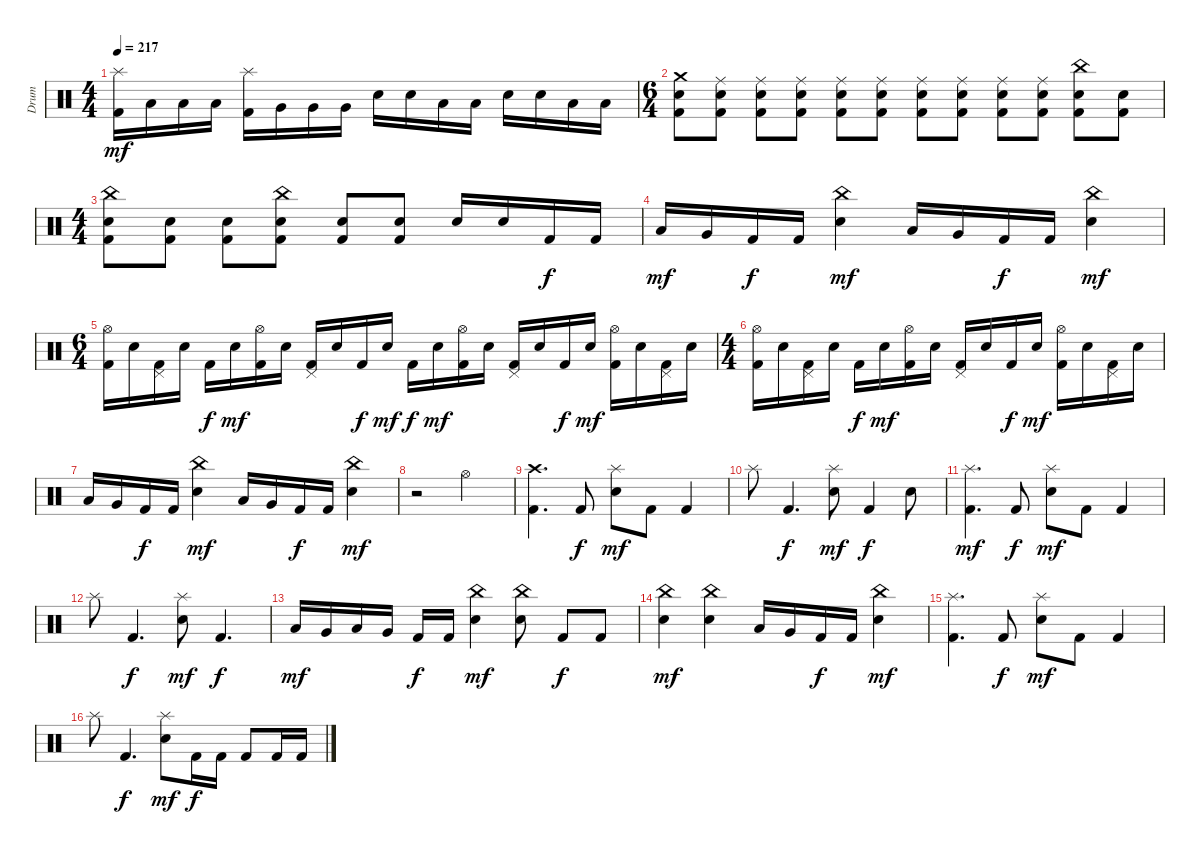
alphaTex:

\track ("Drum" "Drum") {instrument percussion}
\staff {score}
\articulation defaults
\ts (4 4)
\tempo 217
\clef neutral
\ks c
("Splash (hit)" "Kick (hit) 2").16{dy mf} "Low Tom (hit)".16 "Low Tom (hit)".16 "Low Tom (hit)".16 ("Splash (hit)" "Kick (hit) 2").16 "Very Low Tom (hit)".16 "Very Low Tom (hit)".16 "Very Low Tom (hit)".16 "Electric Snare (hit)".16 "Electric Snare (hit)".16 "Low Tom (hit)".16 "Low Tom (hit)".16 "Electric Snare (hit)".16 "Electric Snare (hit)".16 "Low Floor Tom (hit)".16 "Low Floor Tom (hit)".16 |
\ts (6 4)
("Crash medium (hit)" "Electric Snare (hit)" "Kick (hit) 2").8 ("Ride (middle)" "Electric Snare (hit)" "Kick (hit) 2").8 ("Ride (middle)" "Electric Snare (hit)" "Kick (hit) 2").8 ("Ride (middle)" "Electric Snare (hit)" "Kick (hit) 2").8 ("Ride (middle)" "Electric Snare (hit)" "Kick (hit) 2").8 ("Ride (middle)" "Electric Snare (hit)" "Kick (hit) 2").8 ("Ride (middle)" "Electric Snare (hit)" "Kick (hit) 2").8 ("Ride (middle)" "Electric Snare (hit)" "Kick (hit) 2").8 ("Ride (middle)" "Electric Snare (hit)" "Kick (hit) 2").8 ("Ride (middle)" "Electric Snare (hit)" "Kick (hit) 2").8 ("China (hit)" "Electric Snare (hit)" "Kick (hit) 2").8 ("Electric Snare (hit)" "Kick (hit) 2").8 |
\ts (4 4)
("China (hit)" "Electric Snare (hit)" "Kick (hit) 2").8 ("Electric Snare (hit)" "Kick (hit) 2").8 ("Electric Snare (hit)" "Kick (hit) 2").8 ("China (hit)" "Electric Snare (hit)" "Kick (hit) 2").8 ("Electric Snare (hit)" "Kick (hit) 2").8 ("Electric Snare (hit)" "Kick (hit) 2").8 "Electric Snare (hit)".16 "Electric Snare (hit)".16 "Kick (hit) 2".16{dy f} "Kick (hit) 2".16 |
"Low Tom (hit)".16{dy mf} "Very Low Tom (hit)".16 "Kick (hit) 2".16{dy f} "Kick (hit) 2".16 ("China (hit)" "Electric Snare (hit)").4{dy mf} "Low Tom (hit)".16 "Very Low Tom (hit)".16 "Kick (hit) 2".16{dy f} "Kick (hit) 2".16 ("China (hit)" "Electric Snare (hit)").4{dy mf} |
\ts (6 4)
("Hi-Hat (open)" "Kick (hit) 2").16 "Electric Snare (hit)".16 ("Pedal Hi-Hat (hit)" "Kick (hit) 2").16 "Electric Snare (hit)".16 "Kick (hit) 2".16{dy f} "Electric Snare (hit)".16{dy mf} ("Hi-Hat (open)" "Kick (hit) 2").16 "Electric Snare (hit)".16 ("Pedal Hi-Hat (hit)" "Kick (hit) 2").16 "Electric Snare (hit)".16 "Kick (hit) 2".16{dy f} "Electric Snare (hit)".16{dy mf} "Kick (hit) 2".16{dy f} "Electric Snare (hit)".16{dy mf} ("Hi-Hat (open)" "Kick (hit) 2").16 "Electric Snare (hit)".16 ("Pedal Hi-Hat (hit)" "Kick (hit) 2").16 "Electric Snare (hit)".16 "Kick (hit) 2".16{dy f} "Electric Snare (hit)".16{dy mf} ("Hi-Hat (open)" "Kick (hit) 2").16 "Electric Snare (hit)".16 ("Pedal Hi-Hat (hit)" "Kick (hit) 2").16 "Electric Snare (hit)".16 |
\ts (4 4)
("Hi-Hat (open)" "Kick (hit) 2").16 "Electric Snare (hit)".16 ("Pedal Hi-Hat (hit)" "Kick (hit) 2").16 "Electric Snare (hit)".16 "Kick (hit) 2".16{dy f} "Electric Snare (hit)".16{dy mf} ("Hi-Hat (open)" "Kick (hit) 2").16 "Electric Snare (hit)".16 ("Pedal Hi-Hat (hit)" "Kick (hit) 2").16 "Electric Snare (hit)".16 "Kick (hit) 2".16{dy f} "Electric Snare (hit)".16{dy mf} ("Hi-Hat (open)" "Kick (hit) 2").16 "Electric Snare (hit)".16 ("Pedal Hi-Hat (hit)" "Kick (hit) 2").16 "Electric Snare (hit)".16 |
"Low Tom (hit)".16 "Very Low Tom (hit)".16 "Kick (hit) 2".16{dy f} "Kick (hit) 2".16 ("China (hit)" "Electric Snare (hit)").4{dy mf} "Low Tom (hit)".16 "Very Low Tom (hit)".16 "Kick (hit) 2".16{dy f} "Kick (hit) 2".16 ("China (hit)" "Electric Snare (hit)").4{dy mf} |
r.2 "Hi-Hat (open)".2 |
("Crash high (hit)" "Kick (hit) 2").4{d} "Kick (hit) 2".8{dy f} ("Splash (hit)" "Electric Snare (hit)").8{dy mf} "Kick (hit) 2".8 "Kick (hit) 2".4 |
"Splash (hit)".8 "Kick (hit) 2".4{d dy f} ("Splash (hit)" "Electric Snare (hit)").8{dy mf} "Kick (hit) 2".4{dy f} "Electric Snare (hit)".8 |
("Splash (hit)" "Kick (hit) 2").4{d dy mf} "Kick (hit) 2".8{dy f} ("Splash (hit)" "Electric Snare (hit)").8{dy mf} "Kick (hit) 2".8 "Kick (hit) 2".4 |
"Splash (hit)".8 "Kick (hit) 2".4{d dy f} ("Splash (hit)" "Electric Snare (hit)").8{dy mf} "Kick (hit) 2".4{d dy f} |
"Low Tom (hit)".16{dy mf} "Very Low Tom (hit)".16 "Low Tom (hit)".16 "Very Low Tom (hit)".16 "Kick (hit) 2".16{dy f} "Kick (hit) 2".16 ("China (hit)" "Electric Snare (hit)").4{dy mf} ("China (hit)" "Electric Snare (hit)").8 "Kick (hit) 2".8{dy f} "Kick (hit) 2".8 |
("China (hit)" "Electric Snare (hit)").4{dy mf} ("China (hit)" "Electric Snare (hit)").4 "Low Tom (hit)".16 "Very Low Tom (hit)".16 "Kick (hit) 2".16{dy f} "Kick (hit) 2".16 ("China (hit)" "Electric Snare (hit)").4{dy mf} |
("Splash (hit)" "Kick (hit) 2").4{d} "Kick (hit) 2".8{dy f} ("Splash (hit)" "Electric Snare (hit)").8{dy mf} "Kick (hit) 2".8 "Kick (hit) 2".4 |
"Splash (hit)".8 "Kick (hit) 2".4{d dy f} ("Splash (hit)" "Electric Snare (hit)").8{dy mf} "Kick (hit) 2".16{dy f} "Kick (hit) 2".16 "Kick (hit) 2".8 "Kick (hit) 2".16 "Kick (hit) 2".16
